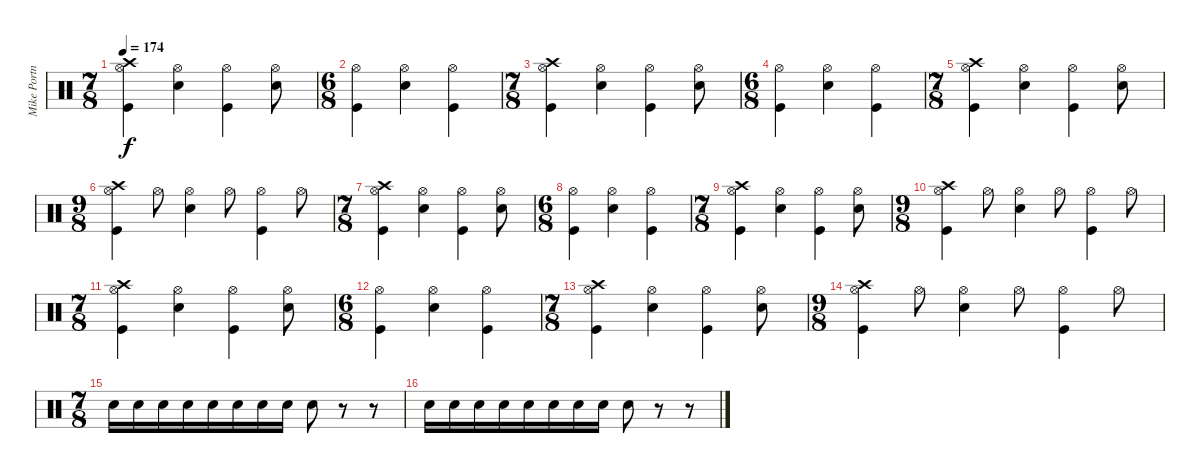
\track ("Mike Portnoy" "Mike Portn") {instrument percussion}
\staff {score}
\articulation defaults
\ts (7 8)
\tempo 174
\clef neutral
\ks c
("Hi-Hat (open)" "Crash high (hit)" "Kick (hit)").4{dy f} ("Snare (hit) 2" "Hi-Hat (open)").4 ("Hi-Hat (open)" "Kick (hit)").4 ("Snare (hit) 2" "Hi-Hat (open)").8 |
\ts (6 8)
("Hi-Hat (open)" "Kick (hit)").4 ("Snare (hit) 2" "Hi-Hat (open)").4 ("Hi-Hat (open)" "Kick (hit)").4 |
\ts (7 8)
("Hi-Hat (open)" "Crash high (hit)" "Kick (hit)").4 ("Snare (hit) 2" "Hi-Hat (open)").4 ("Hi-Hat (open)" "Kick (hit)").4 ("Snare (hit) 2" "Hi-Hat (open)").8 |
\ts (6 8)
("Hi-Hat (open)" "Kick (hit)").4 ("Snare (hit) 2" "Hi-Hat (open)").4 ("Hi-Hat (open)" "Kick (hit)").4 |
\ts (7 8)
("Hi-Hat (open)" "Crash high (hit)" "Kick (hit)").4 ("Snare (hit) 2" "Hi-Hat (open)").4 ("Hi-Hat (open)" "Kick (hit)").4 ("Snare (hit) 2" "Hi-Hat (open)").8 |
\ts (9 8)
("Hi-Hat (open)" "Crash high (hit)" "Kick (hit)").4 "Hi-Hat (open)".8 ("Snare (hit) 2" "Hi-Hat (open)").4 "Hi-Hat (open)".8 ("Hi-Hat (open)" "Kick (hit)").4 "Hi-Hat (open)".8 |
\ts (7 8)
("Hi-Hat (open)" "Crash high (hit)" "Kick (hit)").4 ("Snare (hit) 2" "Hi-Hat (open)").4 ("Hi-Hat (open)" "Kick (hit)").4 ("Snare (hit) 2" "Hi-Hat (open)").8 |
\ts (6 8)
("Hi-Hat (open)" "Kick (hit)").4 ("Snare (hit) 2" "Hi-Hat (open)").4 ("Hi-Hat (open)" "Kick (hit)").4 |
\ts (7 8)
("Hi-Hat (open)" "Crash high (hit)" "Kick (hit)").4 ("Snare (hit) 2" "Hi-Hat (open)").4 ("Hi-Hat (open)" "Kick (hit)").4 ("Snare (hit) 2" "Hi-Hat (open)").8 |
\ts (9 8)
("Hi-Hat (open)" "Crash high (hit)" "Kick (hit)").4 "Hi-Hat (open)".8 ("Snare (hit) 2" "Hi-Hat (open)").4 "Hi-Hat (open)".8 ("Hi-Hat (open)" "Kick (hit)").4 "Hi-Hat (open)".8 |
\ts (7 8)
("Hi-Hat (open)" "Crash high (hit)" "Kick (hit)").4 ("Snare (hit) 2" "Hi-Hat (open)").4 ("Hi-Hat (open)" "Kick (hit)").4 ("Snare (hit) 2" "Hi-Hat (open)").8 |
\ts (6 8)
("Hi-Hat (open)" "Kick (hit)").4 ("Snare (hit) 2" "Hi-Hat (open)").4 ("Hi-Hat (open)" "Kick (hit)").4 |
\ts (7 8)
("Hi-Hat (open)" "Crash high (hit)" "Kick (hit)").4 ("Snare (hit) 2" "Hi-Hat (open)").4 ("Hi-Hat (open)" "Kick (hit)").4 ("Snare (hit) 2" "Hi-Hat (open)").8 |
\ts (9 8)
("Hi-Hat (open)" "Crash high (hit)" "Kick (hit)").4 "Hi-Hat (open)".8 ("Snare (hit) 2" "Hi-Hat (open)").4 "Hi-Hat (open)".8 ("Hi-Hat (open)" "Kick (hit)").4 "Hi-Hat (open)".8 |
\ts (7 8)
"Snare (hit) 2".16 "Snare (hit) 2".16 "Snare (hit) 2".16 "Snare (hit) 2".16 "Snare (hit) 2".16 "Snare (hit) 2".16 "Snare (hit) 2".16 "Snare (hit) 2".16 "Snare (hit) 2".8 r.8 r.8 |
"Snare (hit) 2".16 "Snare (hit) 2".16 "Snare (hit) 2".16 "Snare (hit) 2".16 "Snare (hit) 2".16 "Snare (hit) 2".16 "Snare (hit) 2".16 "Snare (hit) 2".16 "Snare (hit) 2".8 r.8 r.8
